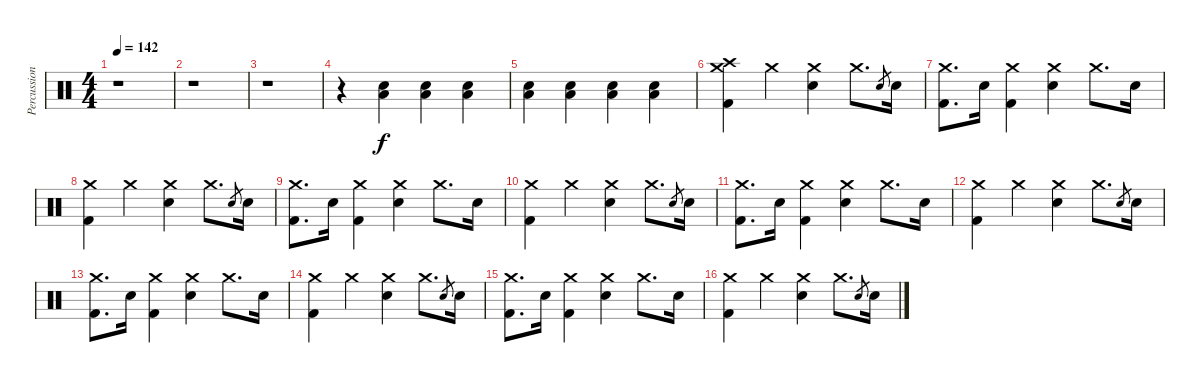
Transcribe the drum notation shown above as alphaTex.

\track ("Percussions" "Percussion") {instrument percussion}
\staff {score}
\articulation defaults
\ts (4 4)
\tempo 142
\clef neutral
\ks c
r.1{dy f} |
r.1 |
r.1 |
r.4{volume 5} ("Electric Snare (hit)" "Low Floor Tom (hit)").4{volume 11} ("Electric Snare (hit)" "Low Floor Tom (hit)").4 ("Electric Snare (hit)" "Low Floor Tom (hit)").4 |
("Electric Snare (hit)" "Low Floor Tom (hit)").4 ("Electric Snare (hit)" "Low Floor Tom (hit)").4 ("Electric Snare (hit)" "Low Floor Tom (hit)").4 ("Electric Snare (hit)" "Low Floor Tom (hit)").4 |
("Crash medium (hit)" "Crash high (hit)" "Kick (hit) 2").4 "Crash medium (hit)".4 ("Crash medium (hit)" "Electric Snare (hit)").4 "Crash medium (hit)".8{d} "Electric Snare (hit)".8{gr} "Electric Snare (hit)".16 |
("Crash medium (hit)" "Kick (hit) 2").8{d} "Electric Snare (hit)".16 ("Crash medium (hit)" "Kick (hit) 2").4 ("Crash medium (hit)" "Electric Snare (hit)").4 "Crash medium (hit)".8{d} "Electric Snare (hit)".16 |
("Crash medium (hit)" "Kick (hit) 2").4 "Crash medium (hit)".4 ("Crash medium (hit)" "Electric Snare (hit)").4 "Crash medium (hit)".8{d} "Electric Snare (hit)".8{gr} "Electric Snare (hit)".16 |
("Crash medium (hit)" "Kick (hit) 2").8{d} "Electric Snare (hit)".16 ("Crash medium (hit)" "Kick (hit) 2").4 ("Crash medium (hit)" "Electric Snare (hit)").4 "Crash medium (hit)".8{d} "Electric Snare (hit)".16 |
("Crash medium (hit)" "Kick (hit) 2").4 "Crash medium (hit)".4 ("Crash medium (hit)" "Electric Snare (hit)").4 "Crash medium (hit)".8{d} "Electric Snare (hit)".8{gr} "Electric Snare (hit)".16 |
("Crash medium (hit)" "Kick (hit) 2").8{d} "Electric Snare (hit)".16 ("Crash medium (hit)" "Kick (hit) 2").4 ("Crash medium (hit)" "Electric Snare (hit)").4 "Crash medium (hit)".8{d} "Electric Snare (hit)".16 |
("Crash medium (hit)" "Kick (hit) 2").4 "Crash medium (hit)".4 ("Crash medium (hit)" "Electric Snare (hit)").4 "Crash medium (hit)".8{d} "Electric Snare (hit)".8{gr} "Electric Snare (hit)".16 |
("Crash medium (hit)" "Kick (hit) 2").8{d} "Electric Snare (hit)".16 ("Crash medium (hit)" "Kick (hit) 2").4 ("Crash medium (hit)" "Electric Snare (hit)").4 "Crash medium (hit)".8{d} "Electric Snare (hit)".16 |
("Crash medium (hit)" "Kick (hit) 2").4 "Crash medium (hit)".4 ("Crash medium (hit)" "Electric Snare (hit)").4 "Crash medium (hit)".8{d} "Electric Snare (hit)".8{gr} "Electric Snare (hit)".16 |
("Crash medium (hit)" "Kick (hit) 2").8{d} "Electric Snare (hit)".16 ("Crash medium (hit)" "Kick (hit) 2").4 ("Crash medium (hit)" "Electric Snare (hit)").4 "Crash medium (hit)".8{d} "Electric Snare (hit)".16 |
("Crash medium (hit)" "Kick (hit) 2").4 "Crash medium (hit)".4 ("Crash medium (hit)" "Electric Snare (hit)").4 "Crash medium (hit)".8{d} "Electric Snare (hit)".8{gr} "Electric Snare (hit)".16
